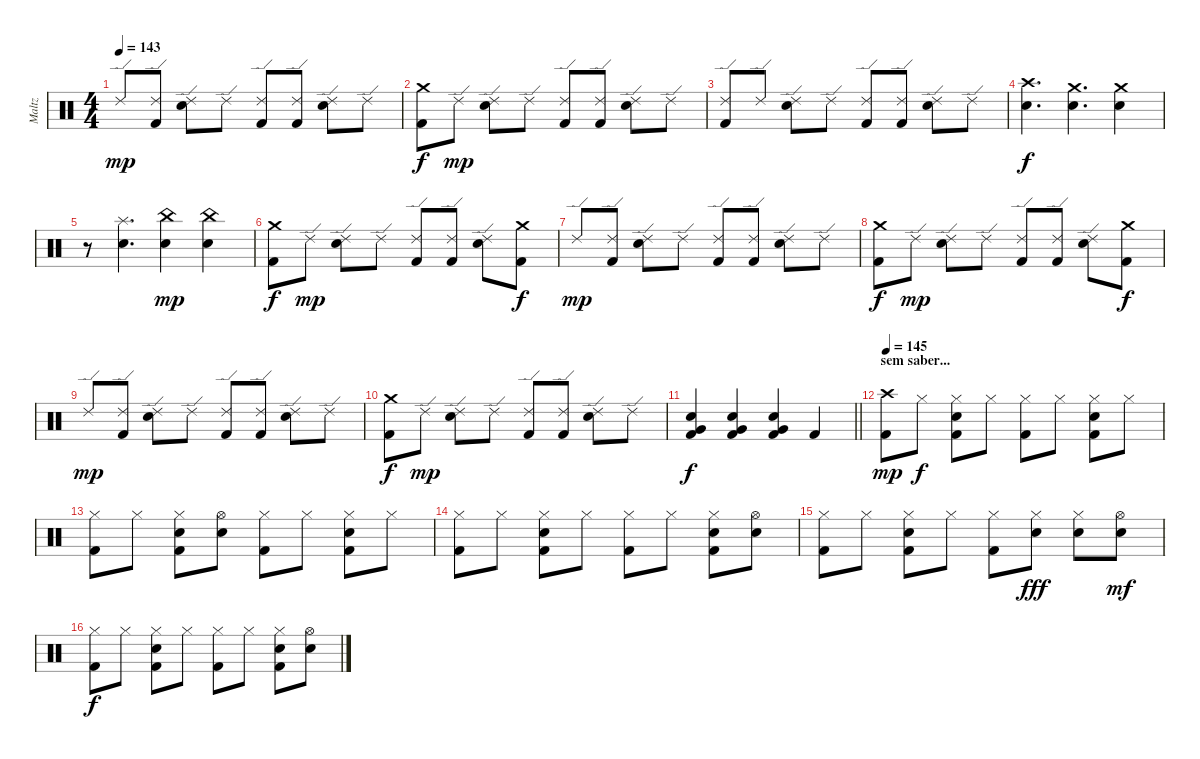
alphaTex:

\track ("Maltz" "Maltz") {instrument percussion}
\staff {score}
\articulation defaults
\ts (4 4)
\tempo 143
\clef neutral
\ks c "Ride (edge) 2".8{dy mp}
("Ride (edge) 2" "Kick (hit) 2").8 ("Ride (edge) 2" "Electric Snare (hit)").8 "Ride (edge) 2".8 ("Ride (edge) 2" "Kick (hit) 2").8 ("Ride (edge) 2" "Kick (hit) 2").8 ("Ride (edge) 2" "Electric Snare (hit)").8 "Ride (edge) 2".8 |
("Crash medium (hit)" "Kick (hit) 2").8{dy f} "Ride (edge) 2".8{dy mp} ("Ride (edge) 2" "Electric Snare (hit)").8 "Ride (edge) 2".8 ("Ride (edge) 2" "Kick (hit) 2").8 ("Ride (edge) 2" "Kick (hit) 2").8 ("Ride (edge) 2" "Electric Snare (hit)").8 "Ride (edge) 2".8 |
("Ride (edge) 2" "Kick (hit) 2").8 "Ride (edge) 2".8 ("Ride (edge) 2" "Electric Snare (hit)").8 "Ride (edge) 2".8 ("Ride (edge) 2" "Kick (hit) 2").8 ("Ride (edge) 2" "Kick (hit) 2").8 ("Ride (edge) 2" "Electric Snare (hit)").8 "Ride (edge) 2".8 |
("Crash high (hit)" "Electric Snare (hit)").4{d dy f} ("Crash medium (hit)" "Electric Snare (hit)").4{d} ("Crash medium (hit)" "Electric Snare (hit)").4 |
r.8 ("Splash (hit)" "Electric Snare (hit)").4{d} ("China (hit)" "Electric Snare (hit)").4{dy mp} ("China (hit)" "Electric Snare (hit)").4 |
("Crash medium (hit)" "Kick (hit) 2").8{dy f} "Ride (edge) 2".8{dy mp} ("Ride (edge) 2" "Electric Snare (hit)").8 "Ride (edge) 2".8 ("Ride (edge) 2" "Kick (hit) 2").8 ("Ride (edge) 2" "Kick (hit) 2").8 ("Ride (edge) 2" "Electric Snare (hit)").8 ("Crash medium (hit)" "Kick (hit) 2").8{dy f} |
"Ride (edge) 2".8{dy mp} ("Ride (edge) 2" "Kick (hit) 2").8 ("Ride (edge) 2" "Electric Snare (hit)").8 "Ride (edge) 2".8 ("Ride (edge) 2" "Kick (hit) 2").8 ("Ride (edge) 2" "Kick (hit) 2").8 ("Ride (edge) 2" "Electric Snare (hit)").8 "Ride (edge) 2".8 |
("Crash medium (hit)" "Kick (hit) 2").8{dy f} "Ride (edge) 2".8{dy mp} ("Ride (edge) 2" "Electric Snare (hit)").8 "Ride (edge) 2".8 ("Ride (edge) 2" "Kick (hit) 2").8 ("Ride (edge) 2" "Kick (hit) 2").8 ("Ride (edge) 2" "Electric Snare (hit)").8 ("Crash medium (hit)" "Kick (hit) 2").8{dy f} |
"Ride (edge) 2".8{dy mp} ("Ride (edge) 2" "Kick (hit) 2").8 ("Ride (edge) 2" "Electric Snare (hit)").8 "Ride (edge) 2".8 ("Ride (edge) 2" "Kick (hit) 2").8 ("Ride (edge) 2" "Kick (hit) 2").8 ("Ride (edge) 2" "Electric Snare (hit)").8 "Ride (edge) 2".8 |
("Crash medium (hit)" "Kick (hit) 2").8{dy f} "Ride (edge) 2".8{dy mp} ("Ride (edge) 2" "Electric Snare (hit)").8 "Ride (edge) 2".8 ("Ride (edge) 2" "Kick (hit) 2").8 ("Ride (edge) 2" "Kick (hit) 2").8 ("Ride (edge) 2" "Electric Snare (hit)").8 "Ride (edge) 2".8 |
\barLineRight lightlight
("Very Low Tom (hit)" "Electric Snare (hit)" "Kick (hit) 2").4{dy f} ("Very Low Tom (hit)" "Electric Snare (hit)" "Kick (hit) 2").4 ("Very Low Tom (hit)" "Electric Snare (hit)" "Kick (hit) 2").4 "Kick (hit) 2".4 |
\section ("" "sem saber...")
\tempo 145
("Crash high (hit)" "Kick (hit) 2").8{dy mp} "Hi-Hat (closed)".8{dy f} ("Hi-Hat (closed)" "Electric Snare (hit)" "Kick (hit) 2").8 "Hi-Hat (closed)".8 ("Hi-Hat (closed)" "Kick (hit) 2").8 "Hi-Hat (closed)".8 ("Hi-Hat (closed)" "Electric Snare (hit)" "Kick (hit) 2").8 "Hi-Hat (closed)".8 |
("Hi-Hat (closed)" "Kick (hit) 2").8 "Hi-Hat (closed)".8 ("Hi-Hat (closed)" "Electric Snare (hit)" "Kick (hit) 2").8 ("Hi-Hat (open)" "Electric Snare (hit)").8 ("Hi-Hat (closed)" "Kick (hit) 2").8 "Hi-Hat (closed)".8 ("Hi-Hat (closed)" "Electric Snare (hit)" "Kick (hit) 2").8 "Hi-Hat (closed)".8 |
("Hi-Hat (closed)" "Kick (hit) 2").8 "Hi-Hat (closed)".8 ("Hi-Hat (closed)" "Electric Snare (hit)" "Kick (hit) 2").8 "Hi-Hat (closed)".8 ("Hi-Hat (closed)" "Kick (hit) 2").8 "Hi-Hat (closed)".8 ("Hi-Hat (closed)" "Electric Snare (hit)" "Kick (hit) 2").8 ("Hi-Hat (open)" "Electric Snare (hit)").8 |
("Hi-Hat (closed)" "Kick (hit) 2").8 "Hi-Hat (closed)".8 ("Hi-Hat (closed)" "Electric Snare (hit)" "Kick (hit) 2").8 "Hi-Hat (closed)".8 ("Hi-Hat (closed)" "Kick (hit) 2").8 ("Hi-Hat (closed)" "Electric Snare (hit)").8{dy fff} ("Hi-Hat (closed)" "Electric Snare (hit)").8 ("Hi-Hat (open)" "Electric Snare (hit)").8{dy mf} |
("Hi-Hat (closed)" "Kick (hit) 2").8{dy f} "Hi-Hat (closed)".8 ("Hi-Hat (closed)" "Electric Snare (hit)" "Kick (hit) 2").8 "Hi-Hat (closed)".8 ("Hi-Hat (closed)" "Kick (hit) 2").8 "Hi-Hat (closed)".8 ("Hi-Hat (closed)" "Electric Snare (hit)" "Kick (hit) 2").8 ("Hi-Hat (open)" "Electric Snare (hit)").8
